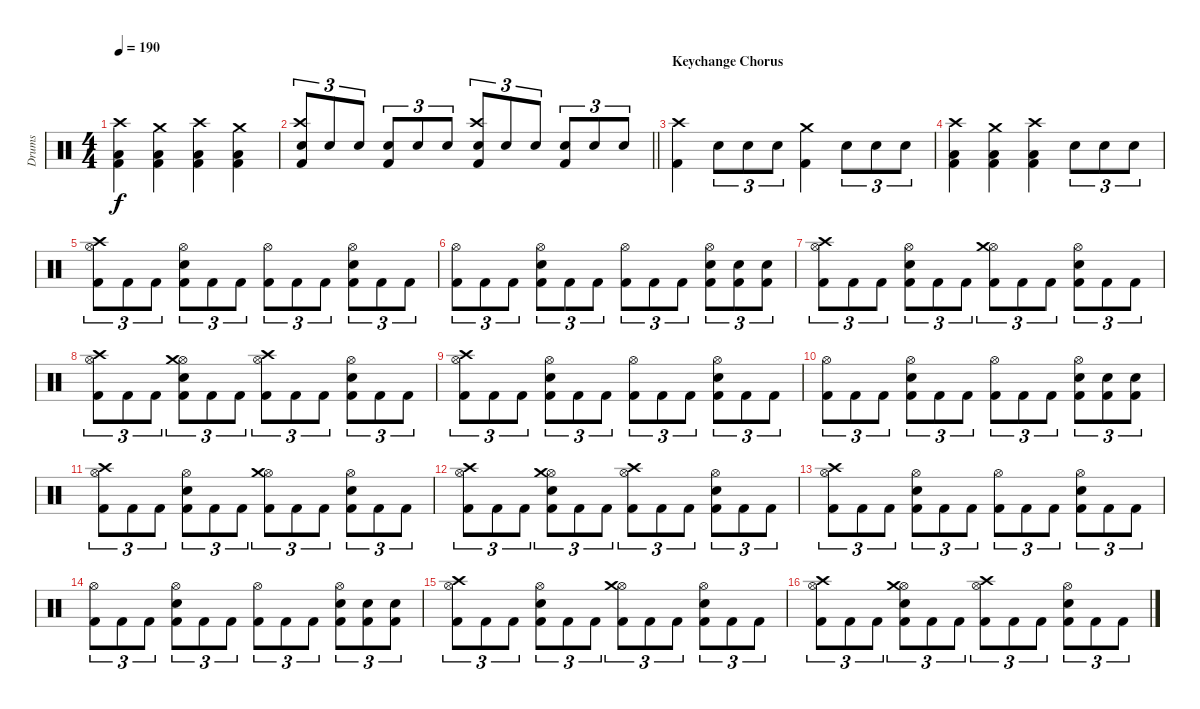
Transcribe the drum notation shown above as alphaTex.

\track ("Drums" "Drums") {instrument percussion}
\staff {score}
\articulation defaults
\ts (4 4)
\tempo 190
\clef neutral
\ks c
("Kick (hit) 2" "Low Floor Tom (hit)" "Crash high (hit)").4{dy f} ("Kick (hit) 2" "Low Floor Tom (hit)" "Crash medium (hit)").4 ("Kick (hit) 2" "Low Floor Tom (hit)" "Crash high (hit)").4 ("Kick (hit) 2" "Low Floor Tom (hit)" "Crash medium (hit)").4 |
\barLineRight lightlight
("Kick (hit) 2" "Snare (hit) 2" "Crash high (hit)").8{tu (3 2)} "Snare (hit) 2".8{tu (3 2)} "Snare (hit) 2".8{tu (3 2)} ("Kick (hit) 2" "Snare (hit) 2").8{tu (3 2)} "Snare (hit) 2".8{tu (3 2)} "Snare (hit) 2".8{tu (3 2)} ("Kick (hit) 2" "Snare (hit) 2" "Crash high (hit)").8{tu (3 2)} "Snare (hit) 2".8{tu (3 2)} "Snare (hit) 2".8{tu (3 2)} ("Kick (hit) 2" "Snare (hit) 2").8{tu (3 2)} "Snare (hit) 2".8{tu (3 2)} "Snare (hit) 2".8{tu (3 2)} |
\section ("" "Keychange Chorus")
("Kick (hit) 2" "Crash high (hit)").4 "Snare (hit) 2".8{tu (3 2)} "Snare (hit) 2".8{tu (3 2)} "Snare (hit) 2".8{tu (3 2)} ("Kick (hit) 2" "Crash medium (hit)").4 "Snare (hit) 2".8{tu (3 2)} "Snare (hit) 2".8{tu (3 2)} "Snare (hit) 2".8{tu (3 2)} |
("Kick (hit) 2" "Low Floor Tom (hit)" "Crash high (hit)").4 ("Kick (hit) 2" "Low Floor Tom (hit)" "Crash medium (hit)").4 ("Kick (hit) 2" "Low Floor Tom (hit)" "Crash high (hit)").4 "Snare (hit) 2".8{tu (3 2)} "Snare (hit) 2".8{tu (3 2)} "Snare (hit) 2".8{tu (3 2)} |
("Kick (hit) 2" "Hi-Hat (open)" "Crash high (hit)").8{tu (3 2)} "Kick (hit) 2".8{tu (3 2)} "Kick (hit) 2".8{tu (3 2)} ("Kick (hit) 2" "Snare (hit) 2" "Hi-Hat (open)").8{tu (3 2)} "Kick (hit) 2".8{tu (3 2)} "Kick (hit) 2".8{tu (3 2)} ("Kick (hit) 2" "Hi-Hat (open)").8{tu (3 2)} "Kick (hit) 2".8{tu (3 2)} "Kick (hit) 2".8{tu (3 2)} ("Kick (hit) 2" "Snare (hit) 2" "Hi-Hat (open)").8{tu (3 2)} "Kick (hit) 2".8{tu (3 2)} "Kick (hit) 2".8{tu (3 2)} |
("Kick (hit) 2" "Hi-Hat (open)").8{tu (3 2)} "Kick (hit) 2".8{tu (3 2)} "Kick (hit) 2".8{tu (3 2)} ("Kick (hit) 2" "Snare (hit) 2" "Hi-Hat (open)").8{tu (3 2)} "Kick (hit) 2".8{tu (3 2)} "Kick (hit) 2".8{tu (3 2)} ("Kick (hit) 2" "Hi-Hat (open)").8{tu (3 2)} "Kick (hit) 2".8{tu (3 2)} "Kick (hit) 2".8{tu (3 2)} ("Kick (hit) 2" "Snare (hit) 2" "Hi-Hat (open)").8{tu (3 2)} ("Kick (hit) 2" "Snare (hit) 2").8{tu (3 2)} ("Kick (hit) 2" "Snare (hit) 2").8{tu (3 2)} |
("Kick (hit) 2" "Hi-Hat (open)" "Crash high (hit)").8{tu (3 2)} "Kick (hit) 2".8{tu (3 2)} "Kick (hit) 2".8{tu (3 2)} ("Kick (hit) 2" "Snare (hit) 2" "Hi-Hat (open)").8{tu (3 2)} "Kick (hit) 2".8{tu (3 2)} "Kick (hit) 2".8{tu (3 2)} ("Kick (hit) 2" "Hi-Hat (open)" "Crash medium (hit)").8{tu (3 2)} "Kick (hit) 2".8{tu (3 2)} "Kick (hit) 2".8{tu (3 2)} ("Kick (hit) 2" "Snare (hit) 2" "Hi-Hat (open)").8{tu (3 2)} "Kick (hit) 2".8{tu (3 2)} "Kick (hit) 2".8{tu (3 2)} |
("Kick (hit) 2" "Hi-Hat (open)" "Crash high (hit)").8{tu (3 2)} "Kick (hit) 2".8{tu (3 2)} "Kick (hit) 2".8{tu (3 2)} ("Kick (hit) 2" "Snare (hit) 2" "Hi-Hat (open)" "Crash medium (hit)").8{tu (3 2)} "Kick (hit) 2".8{tu (3 2)} "Kick (hit) 2".8{tu (3 2)} ("Kick (hit) 2" "Hi-Hat (open)" "Crash high (hit)").8{tu (3 2)} "Kick (hit) 2".8{tu (3 2)} "Kick (hit) 2".8{tu (3 2)} ("Kick (hit) 2" "Snare (hit) 2" "Hi-Hat (open)").8{tu (3 2)} "Kick (hit) 2".8{tu (3 2)} "Kick (hit) 2".8{tu (3 2)} |
("Kick (hit) 2" "Hi-Hat (open)" "Crash high (hit)").8{tu (3 2)} "Kick (hit) 2".8{tu (3 2)} "Kick (hit) 2".8{tu (3 2)} ("Kick (hit) 2" "Snare (hit) 2" "Hi-Hat (open)").8{tu (3 2)} "Kick (hit) 2".8{tu (3 2)} "Kick (hit) 2".8{tu (3 2)} ("Kick (hit) 2" "Hi-Hat (open)").8{tu (3 2)} "Kick (hit) 2".8{tu (3 2)} "Kick (hit) 2".8{tu (3 2)} ("Kick (hit) 2" "Snare (hit) 2" "Hi-Hat (open)").8{tu (3 2)} "Kick (hit) 2".8{tu (3 2)} "Kick (hit) 2".8{tu (3 2)} |
("Kick (hit) 2" "Hi-Hat (open)").8{tu (3 2)} "Kick (hit) 2".8{tu (3 2)} "Kick (hit) 2".8{tu (3 2)} ("Kick (hit) 2" "Snare (hit) 2" "Hi-Hat (open)").8{tu (3 2)} "Kick (hit) 2".8{tu (3 2)} "Kick (hit) 2".8{tu (3 2)} ("Kick (hit) 2" "Hi-Hat (open)").8{tu (3 2)} "Kick (hit) 2".8{tu (3 2)} "Kick (hit) 2".8{tu (3 2)} ("Kick (hit) 2" "Snare (hit) 2" "Hi-Hat (open)").8{tu (3 2)} ("Kick (hit) 2" "Snare (hit) 2").8{tu (3 2)} ("Kick (hit) 2" "Snare (hit) 2").8{tu (3 2)} |
("Kick (hit) 2" "Hi-Hat (open)" "Crash high (hit)").8{tu (3 2)} "Kick (hit) 2".8{tu (3 2)} "Kick (hit) 2".8{tu (3 2)} ("Kick (hit) 2" "Snare (hit) 2" "Hi-Hat (open)").8{tu (3 2)} "Kick (hit) 2".8{tu (3 2)} "Kick (hit) 2".8{tu (3 2)} ("Kick (hit) 2" "Hi-Hat (open)" "Crash medium (hit)").8{tu (3 2)} "Kick (hit) 2".8{tu (3 2)} "Kick (hit) 2".8{tu (3 2)} ("Kick (hit) 2" "Snare (hit) 2" "Hi-Hat (open)").8{tu (3 2)} "Kick (hit) 2".8{tu (3 2)} "Kick (hit) 2".8{tu (3 2)} |
("Kick (hit) 2" "Hi-Hat (open)" "Crash high (hit)").8{tu (3 2)} "Kick (hit) 2".8{tu (3 2)} "Kick (hit) 2".8{tu (3 2)} ("Kick (hit) 2" "Snare (hit) 2" "Hi-Hat (open)" "Crash medium (hit)").8{tu (3 2)} "Kick (hit) 2".8{tu (3 2)} "Kick (hit) 2".8{tu (3 2)} ("Kick (hit) 2" "Hi-Hat (open)" "Crash high (hit)").8{tu (3 2)} "Kick (hit) 2".8{tu (3 2)} "Kick (hit) 2".8{tu (3 2)} ("Kick (hit) 2" "Snare (hit) 2" "Hi-Hat (open)").8{tu (3 2)} "Kick (hit) 2".8{tu (3 2)} "Kick (hit) 2".8{tu (3 2)} |
("Kick (hit) 2" "Hi-Hat (open)" "Crash high (hit)").8{tu (3 2)} "Kick (hit) 2".8{tu (3 2)} "Kick (hit) 2".8{tu (3 2)} ("Kick (hit) 2" "Snare (hit) 2" "Hi-Hat (open)").8{tu (3 2)} "Kick (hit) 2".8{tu (3 2)} "Kick (hit) 2".8{tu (3 2)} ("Kick (hit) 2" "Hi-Hat (open)").8{tu (3 2)} "Kick (hit) 2".8{tu (3 2)} "Kick (hit) 2".8{tu (3 2)} ("Kick (hit) 2" "Snare (hit) 2" "Hi-Hat (open)").8{tu (3 2)} "Kick (hit) 2".8{tu (3 2)} "Kick (hit) 2".8{tu (3 2)} |
("Kick (hit) 2" "Hi-Hat (open)").8{tu (3 2)} "Kick (hit) 2".8{tu (3 2)} "Kick (hit) 2".8{tu (3 2)} ("Kick (hit) 2" "Snare (hit) 2" "Hi-Hat (open)").8{tu (3 2)} "Kick (hit) 2".8{tu (3 2)} "Kick (hit) 2".8{tu (3 2)} ("Kick (hit) 2" "Hi-Hat (open)").8{tu (3 2)} "Kick (hit) 2".8{tu (3 2)} "Kick (hit) 2".8{tu (3 2)} ("Kick (hit) 2" "Snare (hit) 2" "Hi-Hat (open)").8{tu (3 2)} ("Kick (hit) 2" "Snare (hit) 2").8{tu (3 2)} ("Kick (hit) 2" "Snare (hit) 2").8{tu (3 2)} |
("Kick (hit) 2" "Hi-Hat (open)" "Crash high (hit)").8{tu (3 2)} "Kick (hit) 2".8{tu (3 2)} "Kick (hit) 2".8{tu (3 2)} ("Kick (hit) 2" "Snare (hit) 2" "Hi-Hat (open)").8{tu (3 2)} "Kick (hit) 2".8{tu (3 2)} "Kick (hit) 2".8{tu (3 2)} ("Kick (hit) 2" "Hi-Hat (open)" "Crash medium (hit)").8{tu (3 2)} "Kick (hit) 2".8{tu (3 2)} "Kick (hit) 2".8{tu (3 2)} ("Kick (hit) 2" "Snare (hit) 2" "Hi-Hat (open)").8{tu (3 2)} "Kick (hit) 2".8{tu (3 2)} "Kick (hit) 2".8{tu (3 2)} |
("Kick (hit) 2" "Hi-Hat (open)" "Crash high (hit)").8{tu (3 2)} "Kick (hit) 2".8{tu (3 2)} "Kick (hit) 2".8{tu (3 2)} ("Kick (hit) 2" "Snare (hit) 2" "Hi-Hat (open)" "Crash medium (hit)").8{tu (3 2)} "Kick (hit) 2".8{tu (3 2)} "Kick (hit) 2".8{tu (3 2)} ("Kick (hit) 2" "Hi-Hat (open)" "Crash high (hit)").8{tu (3 2)} "Kick (hit) 2".8{tu (3 2)} "Kick (hit) 2".8{tu (3 2)} ("Kick (hit) 2" "Snare (hit) 2" "Hi-Hat (open)").8{tu (3 2)} "Kick (hit) 2".8{tu (3 2)} "Kick (hit) 2".8{tu (3 2)}
